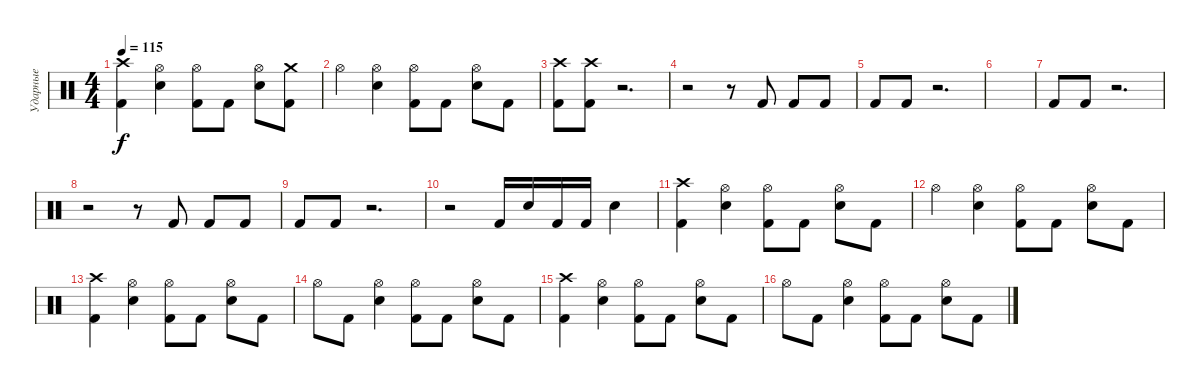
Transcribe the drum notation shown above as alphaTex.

\track ("Ударные" "Ударные") {instrument percussion}
\staff {score}
\articulation defaults
\ts (4 4)
\tempo 115
\clef neutral
\ks c
("Kick (hit) 2" "Crash high (hit)").4{dy f} ("Snare (hit) 2" "Hi-Hat (open)").4 ("Kick (hit) 2" "Hi-Hat (open)").8 "Kick (hit) 2".8 ("Snare (hit) 2" "Hi-Hat (open)").8 ("Kick (hit) 2" "Crash medium (hit)").8 |
"Hi-Hat (open)".4 ("Snare (hit) 2" "Hi-Hat (open)").4 ("Kick (hit) 2" "Hi-Hat (open)").8 "Kick (hit) 2".8 ("Snare (hit) 2" "Hi-Hat (open)").8 "Kick (hit) 2".8 |
("Crash high (hit)" "Kick (hit) 2").8 ("Kick (hit) 2" "Crash high (hit)").8 r.2{d} |
r.2 r.8 "Kick (hit) 2".8 "Kick (hit) 2".8 "Kick (hit) 2".8 |
"Kick (hit) 2".8 "Kick (hit) 2".8 r.2{d} |
|
"Kick (hit) 2".8 "Kick (hit) 2".8 r.2{d} |
r.2 r.8 "Kick (hit) 2".8 "Kick (hit) 2".8 "Kick (hit) 2".8 |
"Kick (hit) 2".8 "Kick (hit) 2".8 r.2{d} |
r.2 "Kick (hit) 2".16 "Snare (hit) 2".16 "Kick (hit) 2".16 "Kick (hit) 2".16 "Snare (hit) 2".4 |
("Kick (hit) 2" "Crash high (hit)").4 ("Snare (hit) 2" "Hi-Hat (open)").4 ("Kick (hit) 2" "Hi-Hat (open)").8 "Kick (hit) 2".8 ("Snare (hit) 2" "Hi-Hat (open)").8 "Kick (hit) 2".8 |
"Hi-Hat (open)".4 ("Snare (hit) 2" "Hi-Hat (open)").4 ("Kick (hit) 2" "Hi-Hat (open)").8 "Kick (hit) 2".8 ("Snare (hit) 2" "Hi-Hat (open)").8 "Kick (hit) 2".8 |
("Kick (hit) 2" "Crash high (hit)").4 ("Snare (hit) 2" "Hi-Hat (open)").4 ("Kick (hit) 2" "Hi-Hat (open)").8 "Kick (hit) 2".8 ("Snare (hit) 2" "Hi-Hat (open)").8 "Kick (hit) 2".8 |
"Hi-Hat (open)".8 "Kick (hit) 2".8 ("Snare (hit) 2" "Hi-Hat (open)").4 ("Kick (hit) 2" "Hi-Hat (open)").8 "Kick (hit) 2".8 ("Snare (hit) 2" "Hi-Hat (open)").8 "Kick (hit) 2".8 |
("Kick (hit) 2" "Crash high (hit)").4 ("Snare (hit) 2" "Hi-Hat (open)").4 ("Kick (hit) 2" "Hi-Hat (open)").8 "Kick (hit) 2".8 ("Snare (hit) 2" "Hi-Hat (open)").8 "Kick (hit) 2".8 |
"Hi-Hat (open)".8 "Kick (hit) 2".8 ("Snare (hit) 2" "Hi-Hat (open)").4 ("Kick (hit) 2" "Hi-Hat (open)").8 "Kick (hit) 2".8 ("Snare (hit) 2" "Hi-Hat (open)").8 "Kick (hit) 2".8
